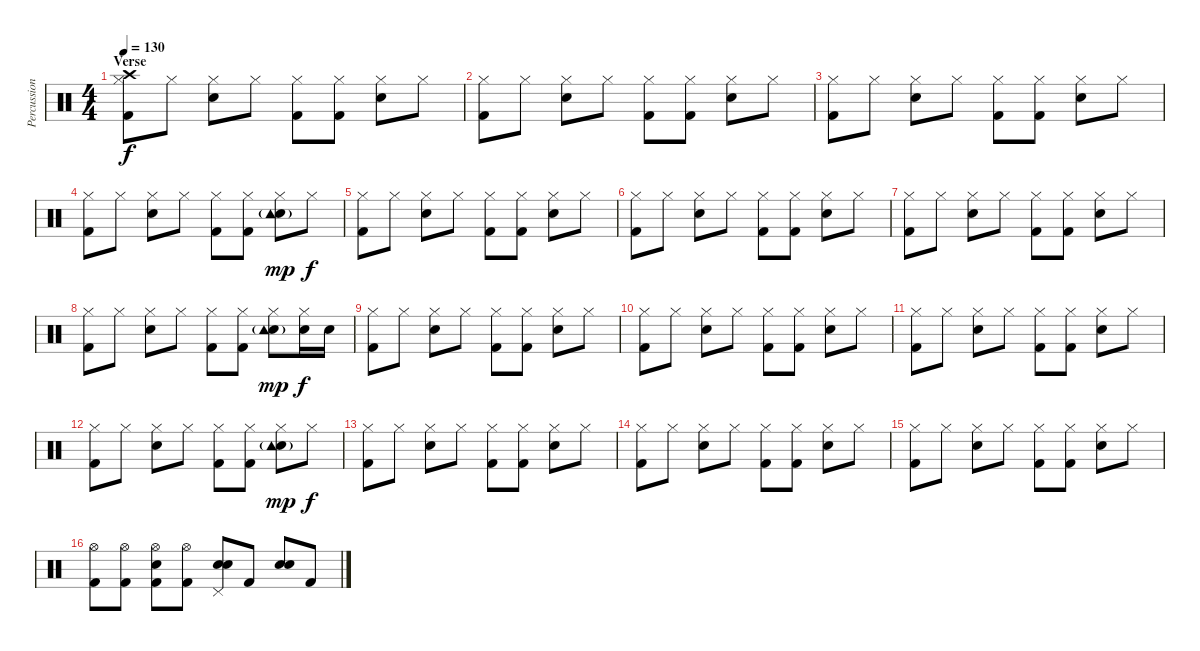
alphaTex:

\track ("Percussion" "Percussion") {instrument percussion}
\staff {score}
\articulation defaults
\ts (4 4)
\section ("" "Verse")
\tempo 130
\clef neutral
\ks c
("Kick (hit) 2" "Hi-Hat (closed)" "Crash high (hit)").8{dy f} "Hi-Hat (closed)".8 ("Electric Snare (hit)" "Hi-Hat (closed)").8 "Hi-Hat (closed)".8 ("Kick (hit) 2" "Hi-Hat (closed)").8 ("Kick (hit) 2" "Hi-Hat (closed)").8 ("Electric Snare (hit)" "Hi-Hat (closed)").8 "Hi-Hat (closed)".8 |
("Kick (hit) 2" "Hi-Hat (closed)").8 "Hi-Hat (closed)".8 ("Electric Snare (hit)" "Hi-Hat (closed)").8 "Hi-Hat (closed)".8 ("Kick (hit) 2" "Hi-Hat (closed)").8 ("Kick (hit) 2" "Hi-Hat (closed)").8 ("Electric Snare (hit)" "Hi-Hat (closed)").8 "Hi-Hat (closed)".8 |
("Kick (hit) 2" "Hi-Hat (closed)").8 "Hi-Hat (closed)".8 ("Electric Snare (hit)" "Hi-Hat (closed)").8 "Hi-Hat (closed)".8 ("Kick (hit) 2" "Hi-Hat (closed)").8 ("Kick (hit) 2" "Hi-Hat (closed)").8 ("Electric Snare (hit)" "Hi-Hat (closed)").8 "Hi-Hat (closed)".8 |
("Kick (hit) 2" "Hi-Hat (closed)").8 "Hi-Hat (closed)".8 ("Electric Snare (hit)" "Hi-Hat (closed)").8 "Hi-Hat (closed)".8 ("Kick (hit) 2" "Hi-Hat (closed)").8 ("Kick (hit) 2" "Hi-Hat (closed)").8 ("Electric Snare (hit)" "Hi-Hat (closed)" "Tambourine (hit)"{g}).8{dy mp} "Hi-Hat (closed)".8{dy f} |
("Kick (hit) 2" "Hi-Hat (closed)").8 "Hi-Hat (closed)".8 ("Electric Snare (hit)" "Hi-Hat (closed)").8 "Hi-Hat (closed)".8 ("Kick (hit) 2" "Hi-Hat (closed)").8 ("Kick (hit) 2" "Hi-Hat (closed)").8 ("Electric Snare (hit)" "Hi-Hat (closed)").8 "Hi-Hat (closed)".8 |
("Kick (hit) 2" "Hi-Hat (closed)").8 "Hi-Hat (closed)".8 ("Electric Snare (hit)" "Hi-Hat (closed)").8 "Hi-Hat (closed)".8 ("Kick (hit) 2" "Hi-Hat (closed)").8 ("Kick (hit) 2" "Hi-Hat (closed)").8 ("Electric Snare (hit)" "Hi-Hat (closed)").8 "Hi-Hat (closed)".8 |
("Kick (hit) 2" "Hi-Hat (closed)").8 "Hi-Hat (closed)".8 ("Electric Snare (hit)" "Hi-Hat (closed)").8 "Hi-Hat (closed)".8 ("Kick (hit) 2" "Hi-Hat (closed)").8 ("Kick (hit) 2" "Hi-Hat (closed)").8 ("Electric Snare (hit)" "Hi-Hat (closed)").8 "Hi-Hat (closed)".8 |
("Kick (hit) 2" "Hi-Hat (closed)").8 "Hi-Hat (closed)".8 ("Electric Snare (hit)" "Hi-Hat (closed)").8 "Hi-Hat (closed)".8 ("Kick (hit) 2" "Hi-Hat (closed)").8 ("Kick (hit) 2" "Hi-Hat (closed)").8 ("Electric Snare (hit)" "Hi-Hat (closed)" "Tambourine (hit)"{g}).8{dy mp} ("Electric Snare (hit)" "Hi-Hat (closed)").16{dy f} "Electric Snare (hit)".16 |
("Kick (hit) 2" "Hi-Hat (closed)").8 "Hi-Hat (closed)".8 ("Electric Snare (hit)" "Hi-Hat (closed)").8 "Hi-Hat (closed)".8 ("Kick (hit) 2" "Hi-Hat (closed)").8 ("Kick (hit) 2" "Hi-Hat (closed)").8 ("Electric Snare (hit)" "Hi-Hat (closed)").8 "Hi-Hat (closed)".8 |
("Kick (hit) 2" "Hi-Hat (closed)").8 "Hi-Hat (closed)".8 ("Electric Snare (hit)" "Hi-Hat (closed)").8 "Hi-Hat (closed)".8 ("Kick (hit) 2" "Hi-Hat (closed)").8 ("Kick (hit) 2" "Hi-Hat (closed)").8 ("Electric Snare (hit)" "Hi-Hat (closed)").8 "Hi-Hat (closed)".8 |
("Kick (hit) 2" "Hi-Hat (closed)").8 "Hi-Hat (closed)".8 ("Electric Snare (hit)" "Hi-Hat (closed)").8 "Hi-Hat (closed)".8 ("Kick (hit) 2" "Hi-Hat (closed)").8 ("Kick (hit) 2" "Hi-Hat (closed)").8 ("Electric Snare (hit)" "Hi-Hat (closed)").8 "Hi-Hat (closed)".8 |
("Kick (hit) 2" "Hi-Hat (closed)").8 "Hi-Hat (closed)".8 ("Electric Snare (hit)" "Hi-Hat (closed)").8 "Hi-Hat (closed)".8 ("Kick (hit) 2" "Hi-Hat (closed)").8 ("Kick (hit) 2" "Hi-Hat (closed)").8 ("Electric Snare (hit)" "Hi-Hat (closed)" "Tambourine (hit)"{g}).8{dy mp} "Hi-Hat (closed)".8{dy f} |
("Kick (hit) 2" "Hi-Hat (closed)").8 "Hi-Hat (closed)".8 ("Electric Snare (hit)" "Hi-Hat (closed)").8 "Hi-Hat (closed)".8 ("Kick (hit) 2" "Hi-Hat (closed)").8 ("Kick (hit) 2" "Hi-Hat (closed)").8 ("Electric Snare (hit)" "Hi-Hat (closed)").8 "Hi-Hat (closed)".8 |
("Kick (hit) 2" "Hi-Hat (closed)").8 "Hi-Hat (closed)".8 ("Electric Snare (hit)" "Hi-Hat (closed)").8 "Hi-Hat (closed)".8 ("Kick (hit) 2" "Hi-Hat (closed)").8 ("Kick (hit) 2" "Hi-Hat (closed)").8 ("Electric Snare (hit)" "Hi-Hat (closed)").8 "Hi-Hat (closed)".8 |
("Kick (hit) 2" "Hi-Hat (closed)").8 "Hi-Hat (closed)".8 ("Electric Snare (hit)" "Hi-Hat (closed)").8 "Hi-Hat (closed)".8 ("Kick (hit) 2" "Hi-Hat (closed)").8 ("Kick (hit) 2" "Hi-Hat (closed)").8 ("Electric Snare (hit)" "Hi-Hat (closed)").8 "Hi-Hat (closed)".8 |
("Kick (hit) 2" "Hi-Hat (open)").8 ("Kick (hit) 2" "Hi-Hat (open)").8 ("Kick (hit) 2" "Electric Snare (hit)" "Hi-Hat (open)").8 ("Kick (hit) 2" "Hi-Hat (open)").8 ("Electric Snare (hit)" "Electric Snare (hit)" "Pedal Hi-Hat (hit)").8 "Kick (hit) 2".8 ("Electric Snare (hit)" "Electric Snare (hit)").8 "Kick (hit) 2".8
